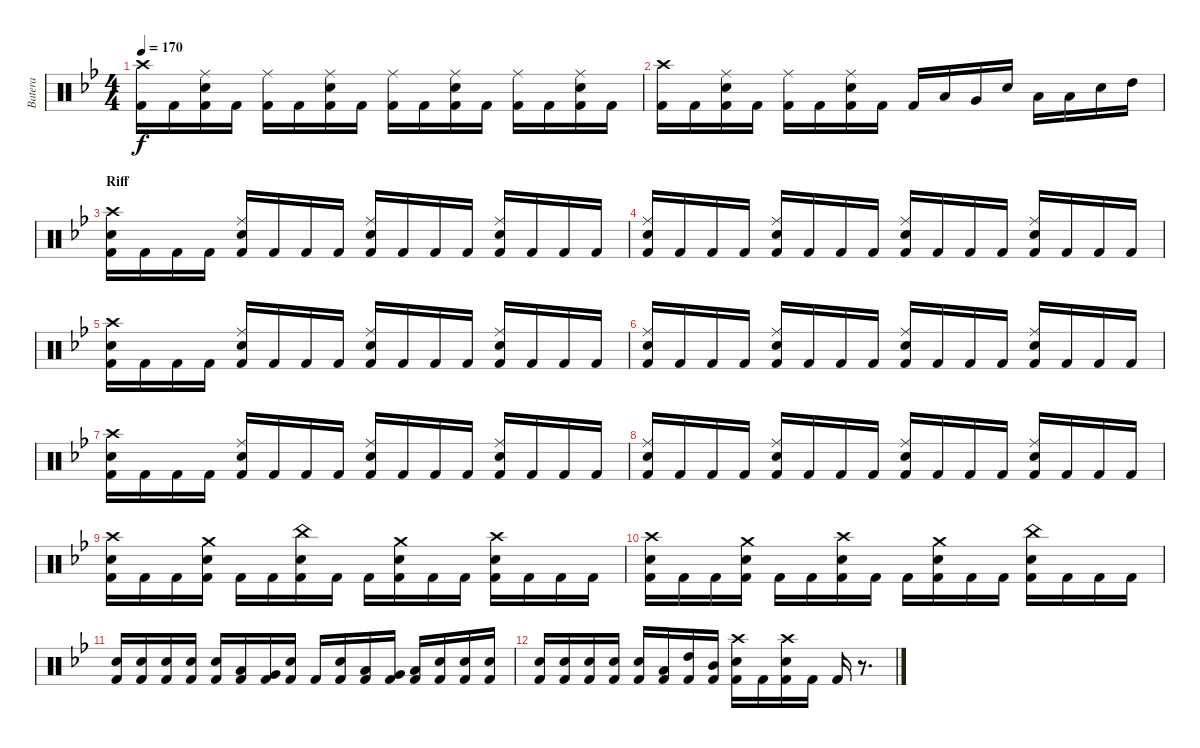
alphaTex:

\track ("Batera" "Batera") {instrument percussion}
\staff {score}
\articulation defaults
\ts (4 4)
\tempo 170
\clef neutral
\ks bb
("Crash high (hit)" "Kick (hit) 2").16{dy f} "Kick (hit) 2".16 ("Ride (middle)" "Electric Snare (hit)" "Kick (hit) 2").16 "Kick (hit) 2".16 ("Ride (middle)" "Kick (hit) 2").16 "Kick (hit) 2".16 ("Ride (middle)" "Electric Snare (hit)" "Kick (hit) 2").16 "Kick (hit) 2".16 ("Ride (middle)" "Kick (hit) 2").16 "Kick (hit) 2".16 ("Ride (middle)" "Electric Snare (hit)" "Kick (hit) 2").16 "Kick (hit) 2".16 ("Ride (middle)" "Kick (hit) 2").16 "Kick (hit) 2".16 ("Ride (middle)" "Electric Snare (hit)" "Kick (hit) 2").16 "Kick (hit) 2".16 |
("Crash high (hit)" "Kick (hit) 2").16 "Kick (hit) 2".16 ("Ride (middle)" "Electric Snare (hit)" "Kick (hit) 2").16 "Kick (hit) 2".16 ("Ride (middle)" "Kick (hit) 2").16 "Kick (hit) 2".16 ("Ride (middle)" "Electric Snare (hit)" "Kick (hit) 2").16 "Kick (hit) 2".16 "Kick (hit) 2".16 "Low Floor Tom (hit)".16 "Very Low Tom (hit)".16 "Electric Snare (hit)".16 "Low Floor Tom (hit)".16 "Low Tom (hit)".16 "Electric Snare (hit)".16 "High Tom (hit)".16 |
\section ("" "Riff")
("Crash high (hit)" "Electric Snare (hit)" "Kick (hit) 2").16 "Kick (hit) 2".16 "Kick (hit) 2".16 "Kick (hit) 2".16 ("Ride (middle)" "Electric Snare (hit)" "Kick (hit) 2").16 "Kick (hit) 2".16 "Kick (hit) 2".16 "Kick (hit) 2".16 ("Ride (middle)" "Electric Snare (hit)" "Kick (hit) 2").16 "Kick (hit) 2".16 "Kick (hit) 2".16 "Kick (hit) 2".16 ("Ride (middle)" "Electric Snare (hit)" "Kick (hit) 2").16 "Kick (hit) 2".16 "Kick (hit) 2".16 "Kick (hit) 2".16 |
("Ride (middle)" "Electric Snare (hit)" "Kick (hit) 2").16 "Kick (hit) 2".16 "Kick (hit) 2".16 "Kick (hit) 2".16 ("Ride (middle)" "Electric Snare (hit)" "Kick (hit) 2").16 "Kick (hit) 2".16 "Kick (hit) 2".16 "Kick (hit) 2".16 ("Ride (middle)" "Electric Snare (hit)" "Kick (hit) 2").16 "Kick (hit) 2".16 "Kick (hit) 2".16 "Kick (hit) 2".16 ("Ride (middle)" "Electric Snare (hit)" "Kick (hit) 2").16 "Kick (hit) 2".16 "Kick (hit) 2".16 "Kick (hit) 2".16 |
("Crash high (hit)" "Electric Snare (hit)" "Kick (hit) 2").16 "Kick (hit) 2".16 "Kick (hit) 2".16 "Kick (hit) 2".16 ("Ride (middle)" "Electric Snare (hit)" "Kick (hit) 2").16 "Kick (hit) 2".16 "Kick (hit) 2".16 "Kick (hit) 2".16 ("Ride (middle)" "Electric Snare (hit)" "Kick (hit) 2").16 "Kick (hit) 2".16 "Kick (hit) 2".16 "Kick (hit) 2".16 ("Ride (middle)" "Electric Snare (hit)" "Kick (hit) 2").16 "Kick (hit) 2".16 "Kick (hit) 2".16 "Kick (hit) 2".16 |
("Ride (middle)" "Electric Snare (hit)" "Kick (hit) 2").16 "Kick (hit) 2".16 "Kick (hit) 2".16 "Kick (hit) 2".16 ("Ride (middle)" "Electric Snare (hit)" "Kick (hit) 2").16 "Kick (hit) 2".16 "Kick (hit) 2".16 "Kick (hit) 2".16 ("Ride (middle)" "Electric Snare (hit)" "Kick (hit) 2").16 "Kick (hit) 2".16 "Kick (hit) 2".16 "Kick (hit) 2".16 ("Ride (middle)" "Electric Snare (hit)" "Kick (hit) 2").16 "Kick (hit) 2".16 "Kick (hit) 2".16 "Kick (hit) 2".16 |
("Crash high (hit)" "Electric Snare (hit)" "Kick (hit) 2").16 "Kick (hit) 2".16 "Kick (hit) 2".16 "Kick (hit) 2".16 ("Ride (middle)" "Electric Snare (hit)" "Kick (hit) 2").16 "Kick (hit) 2".16 "Kick (hit) 2".16 "Kick (hit) 2".16 ("Ride (middle)" "Electric Snare (hit)" "Kick (hit) 2").16 "Kick (hit) 2".16 "Kick (hit) 2".16 "Kick (hit) 2".16 ("Ride (middle)" "Electric Snare (hit)" "Kick (hit) 2").16 "Kick (hit) 2".16 "Kick (hit) 2".16 "Kick (hit) 2".16 |
("Ride (middle)" "Electric Snare (hit)" "Kick (hit) 2").16 "Kick (hit) 2".16 "Kick (hit) 2".16 "Kick (hit) 2".16 ("Ride (middle)" "Electric Snare (hit)" "Kick (hit) 2").16 "Kick (hit) 2".16 "Kick (hit) 2".16 "Kick (hit) 2".16 ("Ride (middle)" "Electric Snare (hit)" "Kick (hit) 2").16 "Kick (hit) 2".16 "Kick (hit) 2".16 "Kick (hit) 2".16 ("Ride (middle)" "Electric Snare (hit)" "Kick (hit) 2").16 "Kick (hit) 2".16 "Kick (hit) 2".16 "Kick (hit) 2".16 |
("Crash high (hit)" "Electric Snare (hit)" "Kick (hit) 2").16 "Kick (hit) 2".16 "Kick (hit) 2".16 ("Crash medium (hit)" "Electric Snare (hit)" "Kick (hit) 2").16 "Kick (hit) 2".16 "Kick (hit) 2".16 ("China (hit)" "Electric Snare (hit)" "Kick (hit) 2").16 "Kick (hit) 2".16 "Kick (hit) 2".16 ("Crash medium (hit)" "Electric Snare (hit)" "Kick (hit) 2").16 "Kick (hit) 2".16 "Kick (hit) 2".16 ("Crash high (hit)" "Electric Snare (hit)" "Kick (hit) 2").16 "Kick (hit) 2".16 "Kick (hit) 2".16 "Kick (hit) 2".16 |
("Crash high (hit)" "Electric Snare (hit)" "Kick (hit) 2").16 "Kick (hit) 2".16 "Kick (hit) 2".16 ("Crash medium (hit)" "Electric Snare (hit)" "Kick (hit) 2").16 "Kick (hit) 2".16 "Kick (hit) 2".16 ("Crash high (hit)" "Electric Snare (hit)" "Kick (hit) 2").16 "Kick (hit) 2".16 "Kick (hit) 2".16 ("Crash medium (hit)" "Electric Snare (hit)" "Kick (hit) 2").16 "Kick (hit) 2".16 "Kick (hit) 2".16 ("China (hit)" "Electric Snare (hit)" "Kick (hit) 2").16 "Kick (hit) 2".16 "Kick (hit) 2".16 "Kick (hit) 2".16 |
("Electric Snare (hit)" "Kick (hit) 2").16 ("Electric Snare (hit)" "Kick (hit) 2").16 ("Electric Snare (hit)" "Kick (hit) 2").16 ("Electric Snare (hit)" "Kick (hit) 2").16 ("Electric Snare (hit)" "Kick (hit) 2").16 ("Low Floor Tom (hit)" "Kick (hit) 2").16 ("Very Low Tom (hit)" "Kick (hit) 2").16 ("Electric Snare (hit)" "Kick (hit) 2").16 "Kick (hit) 2".16 ("Electric Snare (hit)" "Kick (hit) 2").16 ("Low Floor Tom (hit)" "Kick (hit) 2").16 ("Very Low Tom (hit)" "Kick (hit) 2").16 ("Low Tom (hit)" "Kick (hit) 2").16 ("Electric Snare (hit)" "Kick (hit) 2").16 ("Electric Snare (hit)" "Kick (hit) 2").16 ("Electric Snare (hit)" "Kick (hit) 2").16 |
("Electric Snare (hit)" "Kick (hit) 2").16 ("Electric Snare (hit)" "Kick (hit) 2").16 ("Electric Snare (hit)" "Kick (hit) 2").16 ("Electric Snare (hit)" "Kick (hit) 2").16 ("Electric Snare (hit)" "Kick (hit) 2").16 ("Low Floor Tom (hit)" "Kick (hit) 2").16 ("High Tom (hit)" "Kick (hit) 2").16 ("Mid Tom (hit)" "Kick (hit) 2").16 ("Crash high (hit)" "Electric Snare (hit)" "Kick (hit) 2").16 "Kick (hit) 2".16 ("Crash high (hit)" "Electric Snare (hit)" "Kick (hit) 2").16 "Kick (hit) 2".16 "Kick (hit) 2".16 r.8{d}
